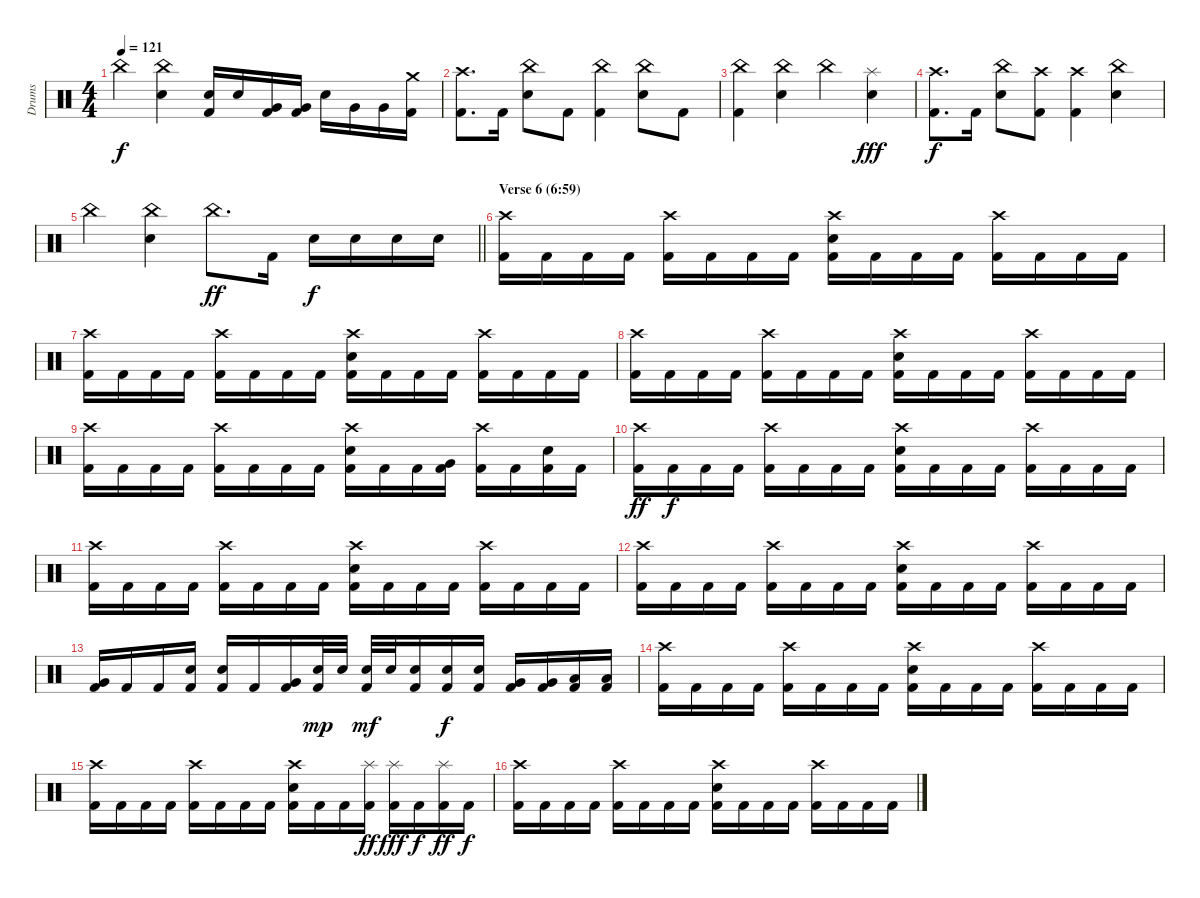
\track ("Drums" "Drums") {instrument percussion}
\staff {score}
\articulation defaults
\ts (4 4)
\tempo 121
\clef neutral
\ks c "China (hit)".4{dy f}
("China (hit)" "Electric Snare (hit)").4 ("Electric Snare (hit)" "Kick (hit) 2").16 "Electric Snare (hit)".16 ("Very Low Tom (hit)" "Kick (hit) 2").16 ("Very Low Tom (hit)" "Kick (hit) 2").16 "Electric Snare (hit)".16 "Very Low Tom (hit)".16 "Very Low Tom (hit)".16 ("Crash medium (hit)" "Kick (hit) 2").16 |
("Crash high (hit)" "Kick (hit) 2").8{d} "Kick (hit) 2".16 ("China (hit)" "Electric Snare (hit)").8 "Kick (hit) 2".8 ("China (hit)" "Kick (hit) 2").4 ("China (hit)" "Electric Snare (hit)").8 "Kick (hit) 2".8 |
("China (hit)" "Kick (hit) 2").4 ("China (hit)" "Electric Snare (hit)").4 "China (hit)".4 ("Splash (hit)" "Electric Snare (hit)").4{dy fff} |
("Crash high (hit)" "Kick (hit) 2").8{d dy f} "Kick (hit) 2".16 ("China (hit)" "Electric Snare (hit)").8 ("Crash high (hit)" "Kick (hit) 2").8 ("Crash high (hit)" "Kick (hit) 2").4 ("China (hit)" "Electric Snare (hit)").4 |
\barLineRight lightlight "China (hit)".4
("China (hit)" "Electric Snare (hit)").4 "China (hit)".8{d dy ff} "Kick (hit) 2".16 "Electric Snare (hit)".16{dy f} "Electric Snare (hit)".16 "Electric Snare (hit)".16 "Electric Snare (hit)".16 |
\section ("" "Verse 6 (6:59)")
("Crash high (hit)" "Kick (hit) 2").16 "Kick (hit) 2".16 "Kick (hit) 2".16 "Kick (hit) 2".16 ("Crash high (hit)" "Kick (hit) 2").16 "Kick (hit) 2".16 "Kick (hit) 2".16 "Kick (hit) 2".16 ("Crash high (hit)" "Electric Snare (hit)" "Kick (hit) 2").16 "Kick (hit) 2".16 "Kick (hit) 2".16 "Kick (hit) 2".16 ("Crash high (hit)" "Kick (hit) 2").16 "Kick (hit) 2".16 "Kick (hit) 2".16 "Kick (hit) 2".16 |
("Crash high (hit)" "Kick (hit) 2").16 "Kick (hit) 2".16 "Kick (hit) 2".16 "Kick (hit) 2".16 ("Crash high (hit)" "Kick (hit) 2").16 "Kick (hit) 2".16 "Kick (hit) 2".16 "Kick (hit) 2".16 ("Crash high (hit)" "Electric Snare (hit)" "Kick (hit) 2").16 "Kick (hit) 2".16 "Kick (hit) 2".16 "Kick (hit) 2".16 ("Crash high (hit)" "Kick (hit) 2").16 "Kick (hit) 2".16 "Kick (hit) 2".16 "Kick (hit) 2".16 |
("Crash high (hit)" "Kick (hit) 2").16 "Kick (hit) 2".16 "Kick (hit) 2".16 "Kick (hit) 2".16 ("Crash high (hit)" "Kick (hit) 2").16 "Kick (hit) 2".16 "Kick (hit) 2".16 "Kick (hit) 2".16 ("Crash high (hit)" "Electric Snare (hit)" "Kick (hit) 2").16 "Kick (hit) 2".16 "Kick (hit) 2".16 "Kick (hit) 2".16 ("Crash high (hit)" "Kick (hit) 2").16 "Kick (hit) 2".16 "Kick (hit) 2".16 "Kick (hit) 2".16 |
("Crash high (hit)" "Kick (hit) 2").16 "Kick (hit) 2".16 "Kick (hit) 2".16 "Kick (hit) 2".16 ("Crash high (hit)" "Kick (hit) 2").16 "Kick (hit) 2".16 "Kick (hit) 2".16 "Kick (hit) 2".16 ("Crash high (hit)" "Electric Snare (hit)" "Kick (hit) 2").16 "Kick (hit) 2".16 "Kick (hit) 2".16 ("Very Low Tom (hit)" "Kick (hit) 2").16 ("Crash high (hit)" "Kick (hit) 2").16 "Kick (hit) 2".16 ("Electric Snare (hit)" "Kick (hit) 2").16 "Kick (hit) 2".16 |
("Crash high (hit)" "Kick (hit) 2").16{dy ff} "Kick (hit) 2".16{dy f} "Kick (hit) 2".16 "Kick (hit) 2".16 ("Crash high (hit)" "Kick (hit) 2").16 "Kick (hit) 2".16 "Kick (hit) 2".16 "Kick (hit) 2".16 ("Crash high (hit)" "Electric Snare (hit)" "Kick (hit) 2").16 "Kick (hit) 2".16 "Kick (hit) 2".16 "Kick (hit) 2".16 ("Crash high (hit)" "Kick (hit) 2").16 "Kick (hit) 2".16 "Kick (hit) 2".16 "Kick (hit) 2".16 |
("Crash high (hit)" "Kick (hit) 2").16 "Kick (hit) 2".16 "Kick (hit) 2".16 "Kick (hit) 2".16 ("Crash high (hit)" "Kick (hit) 2").16 "Kick (hit) 2".16 "Kick (hit) 2".16 "Kick (hit) 2".16 ("Crash high (hit)" "Electric Snare (hit)" "Kick (hit) 2").16 "Kick (hit) 2".16 "Kick (hit) 2".16 "Kick (hit) 2".16 ("Crash high (hit)" "Kick (hit) 2").16 "Kick (hit) 2".16 "Kick (hit) 2".16 "Kick (hit) 2".16 |
("Crash high (hit)" "Kick (hit) 2").16 "Kick (hit) 2".16 "Kick (hit) 2".16 "Kick (hit) 2".16 ("Crash high (hit)" "Kick (hit) 2").16 "Kick (hit) 2".16 "Kick (hit) 2".16 "Kick (hit) 2".16 ("Crash high (hit)" "Electric Snare (hit)" "Kick (hit) 2").16 "Kick (hit) 2".16 "Kick (hit) 2".16 "Kick (hit) 2".16 ("Crash high (hit)" "Kick (hit) 2").16 "Kick (hit) 2".16 "Kick (hit) 2".16 "Kick (hit) 2".16 |
("Very Low Tom (hit)" "Kick (hit) 2").16 "Kick (hit) 2".16 "Kick (hit) 2".16 ("Electric Snare (hit)" "Kick (hit) 2").16 ("Electric Snare (hit)" "Kick (hit) 2").16 "Kick (hit) 2".16 ("Very Low Tom (hit)" "Kick (hit) 2").16 ("Electric Snare (hit)" "Kick (hit) 2").32{dy mp} "Electric Snare (hit)".32 ("Electric Snare (hit)" "Kick (hit) 2").32{dy mf} "Electric Snare (hit)".32 ("Electric Snare (hit)" "Kick (hit) 2").16 ("Electric Snare (hit)" "Kick (hit) 2").16{dy f} ("Electric Snare (hit)" "Kick (hit) 2").16 ("Very Low Tom (hit)" "Kick (hit) 2").16 ("Very Low Tom (hit)" "Kick (hit) 2").16 ("Low Floor Tom (hit)" "Kick (hit) 2").16 ("Low Floor Tom (hit)" "Kick (hit) 2").16 |
("Crash high (hit)" "Kick (hit) 2").16 "Kick (hit) 2".16 "Kick (hit) 2".16 "Kick (hit) 2".16 ("Crash high (hit)" "Kick (hit) 2").16 "Kick (hit) 2".16 "Kick (hit) 2".16 "Kick (hit) 2".16 ("Crash high (hit)" "Electric Snare (hit)" "Kick (hit) 2").16 "Kick (hit) 2".16 "Kick (hit) 2".16 "Kick (hit) 2".16 ("Crash high (hit)" "Kick (hit) 2").16 "Kick (hit) 2".16 "Kick (hit) 2".16 "Kick (hit) 2".16 |
("Crash high (hit)" "Kick (hit) 2").16 "Kick (hit) 2".16 "Kick (hit) 2".16 "Kick (hit) 2".16 ("Crash high (hit)" "Kick (hit) 2").16 "Kick (hit) 2".16 "Kick (hit) 2".16 "Kick (hit) 2".16 ("Crash high (hit)" "Electric Snare (hit)" "Kick (hit) 2").16 "Kick (hit) 2".16 "Kick (hit) 2".16 ("Splash (hit)" "Kick (hit) 2").16{dy ff} ("Splash (hit)" "Kick (hit) 2").16{dy fff} "Kick (hit) 2".16{dy f} ("Splash (hit)" "Kick (hit) 2").16{dy ff} "Kick (hit) 2".16{dy f} |
("Crash high (hit)" "Kick (hit) 2").16 "Kick (hit) 2".16 "Kick (hit) 2".16 "Kick (hit) 2".16 ("Crash high (hit)" "Kick (hit) 2").16 "Kick (hit) 2".16 "Kick (hit) 2".16 "Kick (hit) 2".16 ("Crash high (hit)" "Electric Snare (hit)" "Kick (hit) 2").16 "Kick (hit) 2".16 "Kick (hit) 2".16 "Kick (hit) 2".16 ("Crash high (hit)" "Kick (hit) 2").16 "Kick (hit) 2".16 "Kick (hit) 2".16 "Kick (hit) 2".16
